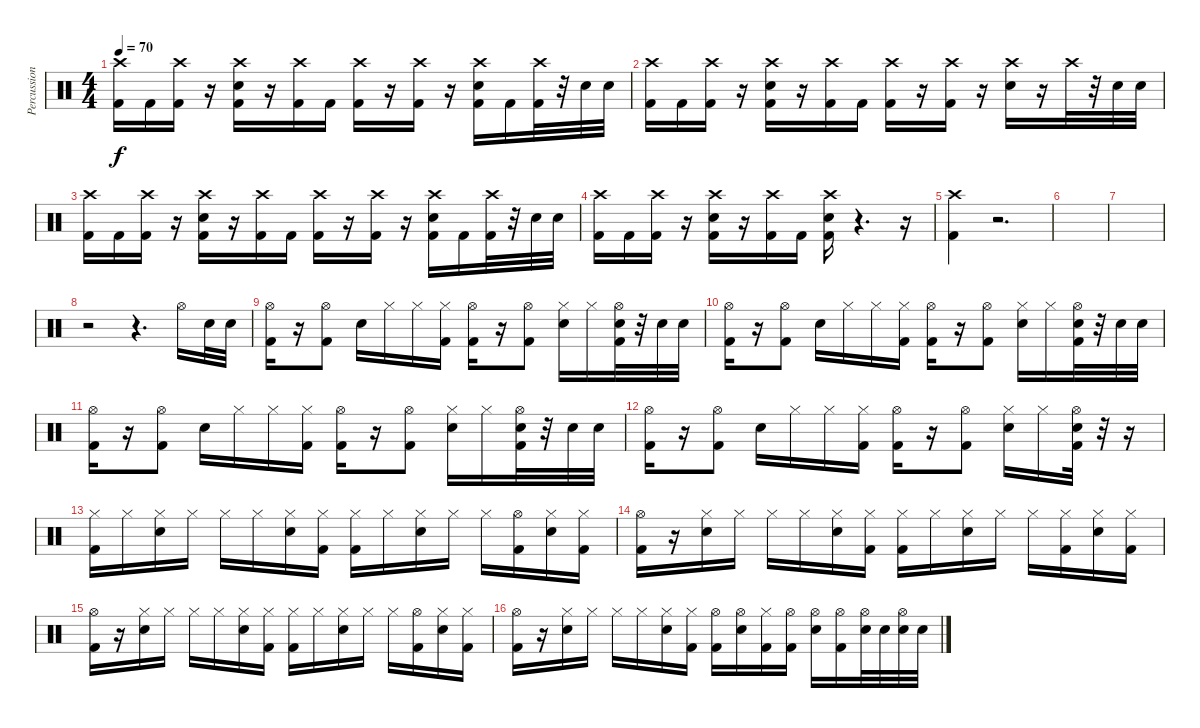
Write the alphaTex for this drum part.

\track ("Percussion" "Percussion") {instrument percussion}
\staff {score}
\articulation defaults
\ts (4 4)
\tempo 70
\clef neutral
\ks c
("Crash high (hit)" "Kick (hit) 2").16{dy f} "Kick (hit) 2".16 ("Crash high (hit)" "Kick (hit) 2").16 r.16 ("Crash high (hit)" "Snare (hit) 2" "Kick (hit) 2").16 r.16 ("Crash high (hit)" "Kick (hit) 2").16 "Kick (hit) 2".16 ("Crash high (hit)" "Kick (hit) 2").16 r.16 ("Crash high (hit)" "Kick (hit) 2").16 r.16 ("Crash high (hit)" "Snare (hit) 2" "Kick (hit) 2").16 "Kick (hit) 2".16 ("Crash high (hit)" "Kick (hit) 2").32 r.32 "Snare (hit) 2".32 "Snare (hit) 2".32 |
("Crash high (hit)" "Kick (hit) 2").16 "Kick (hit) 2".16 ("Crash high (hit)" "Kick (hit) 2").16 r.16 ("Crash high (hit)" "Snare (hit) 2" "Kick (hit) 2").16 r.16 ("Crash high (hit)" "Kick (hit) 2").16 "Kick (hit) 2".16 ("Crash high (hit)" "Kick (hit) 2").16 r.16 ("Crash high (hit)" "Kick (hit) 2").16 r.16 ("Crash high (hit)" "Snare (hit) 2").16 r.16 "Crash high (hit)".32 r.32 "Snare (hit) 2".32 "Snare (hit) 2".32 |
("Crash high (hit)" "Kick (hit) 2").16 "Kick (hit) 2".16 ("Crash high (hit)" "Kick (hit) 2").16 r.16 ("Crash high (hit)" "Snare (hit) 2" "Kick (hit) 2").16 r.16 ("Crash high (hit)" "Kick (hit) 2").16 "Kick (hit) 2".16 ("Crash high (hit)" "Kick (hit) 2").16 r.16 ("Crash high (hit)" "Kick (hit) 2").16 r.16 ("Crash high (hit)" "Snare (hit) 2" "Kick (hit) 2").16 "Kick (hit) 2".16 ("Crash high (hit)" "Kick (hit) 2").32 r.32 "Snare (hit) 2".32 "Snare (hit) 2".32 |
("Crash high (hit)" "Kick (hit) 2").16 "Kick (hit) 2".16 ("Crash high (hit)" "Kick (hit) 2").16 r.16 ("Crash high (hit)" "Snare (hit) 2" "Kick (hit) 2").16 r.16 ("Crash high (hit)" "Kick (hit) 2").16 "Kick (hit) 2".16 ("Crash high (hit)" "Snare (hit) 2" "Kick (hit) 2").16 r.4{d} r.16 |
("Crash high (hit)" "Kick (hit) 2").4 r.2{d} |
|
|
r.2 r.4{d} "Hi-Hat (open)".16 "Snare (hit) 2".32 "Snare (hit) 2".32 |
("Hi-Hat (open)" "Kick (hit) 2").16 r.16 ("Hi-Hat (open)" "Kick (hit) 2").8 "Snare (hit) 2".16 "Hi-Hat (closed)".16 "Hi-Hat (closed)".16 ("Hi-Hat (closed)" "Kick (hit) 2").16 ("Hi-Hat (open)" "Kick (hit) 2").16 r.16 ("Hi-Hat (open)" "Kick (hit) 2").8 ("Hi-Hat (closed)" "Snare (hit) 2").16 "Hi-Hat (closed)".16 ("Hi-Hat (open)" "Snare (hit) 2" "Kick (hit) 2").32 r.32 "Snare (hit) 2".32 "Snare (hit) 2".32 |
("Hi-Hat (open)" "Kick (hit) 2").16 r.16 ("Hi-Hat (open)" "Kick (hit) 2").8 "Snare (hit) 2".16 "Hi-Hat (closed)".16 "Hi-Hat (closed)".16 ("Hi-Hat (closed)" "Kick (hit) 2").16 ("Hi-Hat (open)" "Kick (hit) 2").16 r.16 ("Hi-Hat (open)" "Kick (hit) 2").8 ("Hi-Hat (closed)" "Snare (hit) 2").16 "Hi-Hat (closed)".16 ("Hi-Hat (open)" "Snare (hit) 2" "Kick (hit) 2").32 r.32 "Snare (hit) 2".32 "Snare (hit) 2".32 |
("Hi-Hat (open)" "Kick (hit) 2").16 r.16 ("Hi-Hat (open)" "Kick (hit) 2").8 "Snare (hit) 2".16 "Hi-Hat (closed)".16 "Hi-Hat (closed)".16 ("Hi-Hat (closed)" "Kick (hit) 2").16 ("Hi-Hat (open)" "Kick (hit) 2").16 r.16 ("Hi-Hat (open)" "Kick (hit) 2").8 ("Hi-Hat (closed)" "Snare (hit) 2").16 "Hi-Hat (closed)".16 ("Hi-Hat (open)" "Snare (hit) 2" "Kick (hit) 2").32 r.32 "Snare (hit) 2".32 "Snare (hit) 2".32 |
("Hi-Hat (open)" "Kick (hit) 2").16 r.16 ("Hi-Hat (open)" "Kick (hit) 2").8 "Snare (hit) 2".16 "Hi-Hat (closed)".16 "Hi-Hat (closed)".16 ("Hi-Hat (closed)" "Kick (hit) 2").16 ("Hi-Hat (open)" "Kick (hit) 2").16 r.16 ("Hi-Hat (open)" "Kick (hit) 2").8 ("Hi-Hat (closed)" "Snare (hit) 2").16 "Hi-Hat (closed)".16 ("Hi-Hat (open)" "Snare (hit) 2" "Kick (hit) 2").32 r.32 r.16 |
("Hi-Hat (closed)" "Kick (hit) 2").16 "Hi-Hat (closed)".16 ("Hi-Hat (closed)" "Snare (hit) 2").16 "Hi-Hat (closed)".16 "Hi-Hat (closed)".16 "Hi-Hat (closed)".16 ("Hi-Hat (closed)" "Snare (hit) 2").16 ("Hi-Hat (closed)" "Kick (hit) 2").16 ("Hi-Hat (closed)" "Kick (hit) 2").16 "Hi-Hat (closed)".16 ("Hi-Hat (closed)" "Snare (hit) 2").16 "Hi-Hat (closed)".16 "Hi-Hat (closed)".16 ("Hi-Hat (open)" "Kick (hit) 2").16 ("Hi-Hat (closed)" "Snare (hit) 2").16 ("Hi-Hat (closed)" "Kick (hit) 2").16 |
("Hi-Hat (open)" "Kick (hit) 2").16 r.16 ("Hi-Hat (closed)" "Snare (hit) 2").16 "Hi-Hat (closed)".16 "Hi-Hat (closed)".16 "Hi-Hat (closed)".16 ("Hi-Hat (closed)" "Snare (hit) 2").16 ("Hi-Hat (closed)" "Kick (hit) 2").16 ("Hi-Hat (closed)" "Kick (hit) 2").16 "Hi-Hat (closed)".16 ("Hi-Hat (closed)" "Snare (hit) 2").16 "Hi-Hat (closed)".16 "Hi-Hat (closed)".16 ("Hi-Hat (closed)" "Kick (hit) 2").16 ("Hi-Hat (closed)" "Snare (hit) 2").16 ("Hi-Hat (closed)" "Kick (hit) 2").16 |
("Hi-Hat (open)" "Kick (hit) 2").16 r.16 ("Hi-Hat (closed)" "Snare (hit) 2").16 "Hi-Hat (closed)".16 "Hi-Hat (closed)".16 "Hi-Hat (closed)".16 ("Hi-Hat (closed)" "Snare (hit) 2").16 ("Hi-Hat (closed)" "Kick (hit) 2").16 ("Hi-Hat (closed)" "Kick (hit) 2").16 "Hi-Hat (closed)".16 ("Hi-Hat (closed)" "Snare (hit) 2").16 "Hi-Hat (closed)".16 "Hi-Hat (closed)".16 ("Hi-Hat (open)" "Kick (hit) 2").16 ("Hi-Hat (closed)" "Snare (hit) 2").16 ("Hi-Hat (closed)" "Kick (hit) 2").16 |
("Hi-Hat (open)" "Kick (hit) 2").16 r.16 ("Hi-Hat (closed)" "Snare (hit) 2").16 "Hi-Hat (closed)".16 "Hi-Hat (closed)".16 "Hi-Hat (closed)".16 ("Hi-Hat (closed)" "Snare (hit) 2").16 ("Hi-Hat (closed)" "Kick (hit) 2").16 ("Hi-Hat (open)" "Kick (hit) 2").16 ("Hi-Hat (open)" "Snare (hit) 2").16 ("Hi-Hat (closed)" "Kick (hit) 2").16 ("Hi-Hat (open)" "Kick (hit) 2").16 ("Hi-Hat (open)" "Snare (hit) 2").16 ("Hi-Hat (open)" "Kick (hit) 2").16 ("Hi-Hat (open)" "Snare (hit) 2").32 "Snare (hit) 2".32 ("Hi-Hat (open)" "Snare (hit) 2").32 "Snare (hit) 2".32
